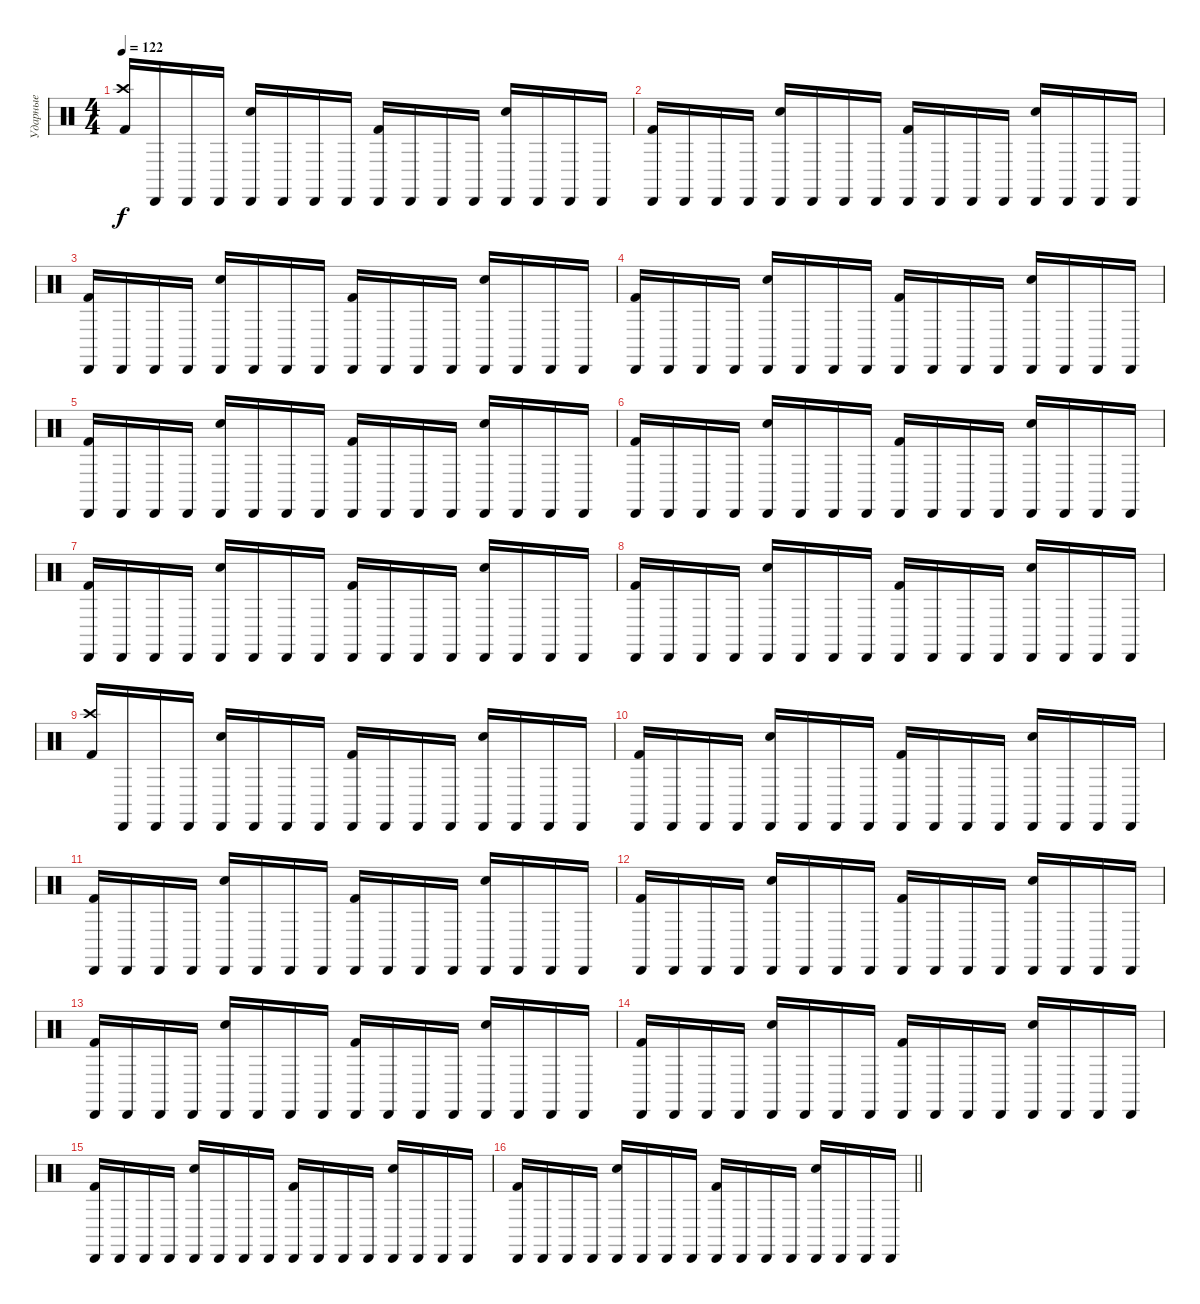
\track ("Ударные" "Ударные") {instrument percussion}
\staff {score}
\articulation defaults
\ts (4 4)
\tempo 122
\clef neutral
\ks c
("Crash high (hit)" "Kick (hit) 2").16{dy f} "Cabasa (hit)".16 "Cabasa (hit)".16 "Cabasa (hit)".16 ("Cabasa (hit)" "Snare (hit) 2").16 "Cabasa (hit)".16 "Cabasa (hit)".16 "Cabasa (hit)".16 ("Cabasa (hit)" "Kick (hit) 2").16 "Cabasa (hit)".16 "Cabasa (hit)".16 "Cabasa (hit)".16 ("Cabasa (hit)" "Snare (hit) 2").16 "Cabasa (hit)".16 "Cabasa (hit)".16 "Cabasa (hit)".16 |
("Cabasa (hit)" "Kick (hit) 2").16 "Cabasa (hit)".16 "Cabasa (hit)".16 "Cabasa (hit)".16 ("Cabasa (hit)" "Snare (hit) 2").16 "Cabasa (hit)".16 "Cabasa (hit)".16 "Cabasa (hit)".16 ("Cabasa (hit)" "Kick (hit) 2").16 "Cabasa (hit)".16 "Cabasa (hit)".16 "Cabasa (hit)".16 ("Cabasa (hit)" "Snare (hit) 2").16 "Cabasa (hit)".16 "Cabasa (hit)".16 "Cabasa (hit)".16 |
("Cabasa (hit)" "Kick (hit) 2").16 "Cabasa (hit)".16 "Cabasa (hit)".16 "Cabasa (hit)".16 ("Cabasa (hit)" "Snare (hit) 2").16 "Cabasa (hit)".16 "Cabasa (hit)".16 "Cabasa (hit)".16 ("Cabasa (hit)" "Kick (hit) 2").16 "Cabasa (hit)".16 "Cabasa (hit)".16 "Cabasa (hit)".16 ("Cabasa (hit)" "Snare (hit) 2").16 "Cabasa (hit)".16 "Cabasa (hit)".16 "Cabasa (hit)".16 |
("Cabasa (hit)" "Kick (hit) 2").16 "Cabasa (hit)".16 "Cabasa (hit)".16 "Cabasa (hit)".16 ("Cabasa (hit)" "Snare (hit) 2").16 "Cabasa (hit)".16 "Cabasa (hit)".16 "Cabasa (hit)".16 ("Cabasa (hit)" "Kick (hit) 2").16 "Cabasa (hit)".16 "Cabasa (hit)".16 "Cabasa (hit)".16 ("Cabasa (hit)" "Snare (hit) 2").16 "Cabasa (hit)".16 "Cabasa (hit)".16 "Cabasa (hit)".16 |
("Cabasa (hit)" "Kick (hit) 2").16 "Cabasa (hit)".16 "Cabasa (hit)".16 "Cabasa (hit)".16 ("Cabasa (hit)" "Snare (hit) 2").16 "Cabasa (hit)".16 "Cabasa (hit)".16 "Cabasa (hit)".16 ("Cabasa (hit)" "Kick (hit) 2").16 "Cabasa (hit)".16 "Cabasa (hit)".16 "Cabasa (hit)".16 ("Cabasa (hit)" "Snare (hit) 2").16 "Cabasa (hit)".16 "Cabasa (hit)".16 "Cabasa (hit)".16 |
("Cabasa (hit)" "Kick (hit) 2").16 "Cabasa (hit)".16 "Cabasa (hit)".16 "Cabasa (hit)".16 ("Cabasa (hit)" "Snare (hit) 2").16 "Cabasa (hit)".16 "Cabasa (hit)".16 "Cabasa (hit)".16 ("Cabasa (hit)" "Kick (hit) 2").16 "Cabasa (hit)".16 "Cabasa (hit)".16 "Cabasa (hit)".16 ("Cabasa (hit)" "Snare (hit) 2").16 "Cabasa (hit)".16 "Cabasa (hit)".16 "Cabasa (hit)".16 |
("Cabasa (hit)" "Kick (hit) 2").16 "Cabasa (hit)".16 "Cabasa (hit)".16 "Cabasa (hit)".16 ("Cabasa (hit)" "Snare (hit) 2").16 "Cabasa (hit)".16 "Cabasa (hit)".16 "Cabasa (hit)".16 ("Cabasa (hit)" "Kick (hit) 2").16 "Cabasa (hit)".16 "Cabasa (hit)".16 "Cabasa (hit)".16 ("Cabasa (hit)" "Snare (hit) 2").16 "Cabasa (hit)".16 "Cabasa (hit)".16 "Cabasa (hit)".16 |
("Cabasa (hit)" "Kick (hit) 2").16 "Cabasa (hit)".16 "Cabasa (hit)".16 "Cabasa (hit)".16 ("Cabasa (hit)" "Snare (hit) 2").16 "Cabasa (hit)".16 "Cabasa (hit)".16 "Cabasa (hit)".16 ("Cabasa (hit)" "Kick (hit) 2").16 "Cabasa (hit)".16 "Cabasa (hit)".16 "Cabasa (hit)".16 ("Cabasa (hit)" "Snare (hit) 2").16 "Cabasa (hit)".16 "Cabasa (hit)".16 "Cabasa (hit)".16 |
("Crash high (hit)" "Kick (hit) 2").16 "Cabasa (hit)".16 "Cabasa (hit)".16 "Cabasa (hit)".16 ("Cabasa (hit)" "Snare (hit) 2").16 "Cabasa (hit)".16 "Cabasa (hit)".16 "Cabasa (hit)".16 ("Cabasa (hit)" "Kick (hit) 2").16 "Cabasa (hit)".16 "Cabasa (hit)".16 "Cabasa (hit)".16 ("Cabasa (hit)" "Snare (hit) 2").16 "Cabasa (hit)".16 "Cabasa (hit)".16 "Cabasa (hit)".16 |
("Cabasa (hit)" "Kick (hit) 2").16 "Cabasa (hit)".16 "Cabasa (hit)".16 "Cabasa (hit)".16 ("Cabasa (hit)" "Snare (hit) 2").16 "Cabasa (hit)".16 "Cabasa (hit)".16 "Cabasa (hit)".16 ("Cabasa (hit)" "Kick (hit) 2").16 "Cabasa (hit)".16 "Cabasa (hit)".16 "Cabasa (hit)".16 ("Cabasa (hit)" "Snare (hit) 2").16 "Cabasa (hit)".16 "Cabasa (hit)".16 "Cabasa (hit)".16 |
("Cabasa (hit)" "Kick (hit) 2").16 "Cabasa (hit)".16 "Cabasa (hit)".16 "Cabasa (hit)".16 ("Cabasa (hit)" "Snare (hit) 2").16 "Cabasa (hit)".16 "Cabasa (hit)".16 "Cabasa (hit)".16 ("Cabasa (hit)" "Kick (hit) 2").16 "Cabasa (hit)".16 "Cabasa (hit)".16 "Cabasa (hit)".16 ("Cabasa (hit)" "Snare (hit) 2").16 "Cabasa (hit)".16 "Cabasa (hit)".16 "Cabasa (hit)".16 |
("Cabasa (hit)" "Kick (hit) 2").16 "Cabasa (hit)".16 "Cabasa (hit)".16 "Cabasa (hit)".16 ("Cabasa (hit)" "Snare (hit) 2").16 "Cabasa (hit)".16 "Cabasa (hit)".16 "Cabasa (hit)".16 ("Cabasa (hit)" "Kick (hit) 2").16 "Cabasa (hit)".16 "Cabasa (hit)".16 "Cabasa (hit)".16 ("Cabasa (hit)" "Snare (hit) 2").16 "Cabasa (hit)".16 "Cabasa (hit)".16 "Cabasa (hit)".16 |
("Cabasa (hit)" "Kick (hit) 2").16 "Cabasa (hit)".16 "Cabasa (hit)".16 "Cabasa (hit)".16 ("Cabasa (hit)" "Snare (hit) 2").16 "Cabasa (hit)".16 "Cabasa (hit)".16 "Cabasa (hit)".16 ("Cabasa (hit)" "Kick (hit) 2").16 "Cabasa (hit)".16 "Cabasa (hit)".16 "Cabasa (hit)".16 ("Cabasa (hit)" "Snare (hit) 2").16 "Cabasa (hit)".16 "Cabasa (hit)".16 "Cabasa (hit)".16 |
("Cabasa (hit)" "Kick (hit) 2").16 "Cabasa (hit)".16 "Cabasa (hit)".16 "Cabasa (hit)".16 ("Cabasa (hit)" "Snare (hit) 2").16 "Cabasa (hit)".16 "Cabasa (hit)".16 "Cabasa (hit)".16 ("Cabasa (hit)" "Kick (hit) 2").16 "Cabasa (hit)".16 "Cabasa (hit)".16 "Cabasa (hit)".16 ("Cabasa (hit)" "Snare (hit) 2").16 "Cabasa (hit)".16 "Cabasa (hit)".16 "Cabasa (hit)".16 |
("Cabasa (hit)" "Kick (hit) 2").16 "Cabasa (hit)".16 "Cabasa (hit)".16 "Cabasa (hit)".16 ("Cabasa (hit)" "Snare (hit) 2").16 "Cabasa (hit)".16 "Cabasa (hit)".16 "Cabasa (hit)".16 ("Cabasa (hit)" "Kick (hit) 2").16 "Cabasa (hit)".16 "Cabasa (hit)".16 "Cabasa (hit)".16 ("Cabasa (hit)" "Snare (hit) 2").16 "Cabasa (hit)".16 "Cabasa (hit)".16 "Cabasa (hit)".16 |
\barLineRight lightlight
("Cabasa (hit)" "Kick (hit) 2").16 "Cabasa (hit)".16 "Cabasa (hit)".16 "Cabasa (hit)".16 ("Cabasa (hit)" "Snare (hit) 2").16 "Cabasa (hit)".16 "Cabasa (hit)".16 "Cabasa (hit)".16 ("Cabasa (hit)" "Kick (hit) 2").16 "Cabasa (hit)".16 "Cabasa (hit)".16 "Cabasa (hit)".16 ("Cabasa (hit)" "Snare (hit) 2").16 "Cabasa (hit)".16 "Cabasa (hit)".16 "Cabasa (hit)".16
